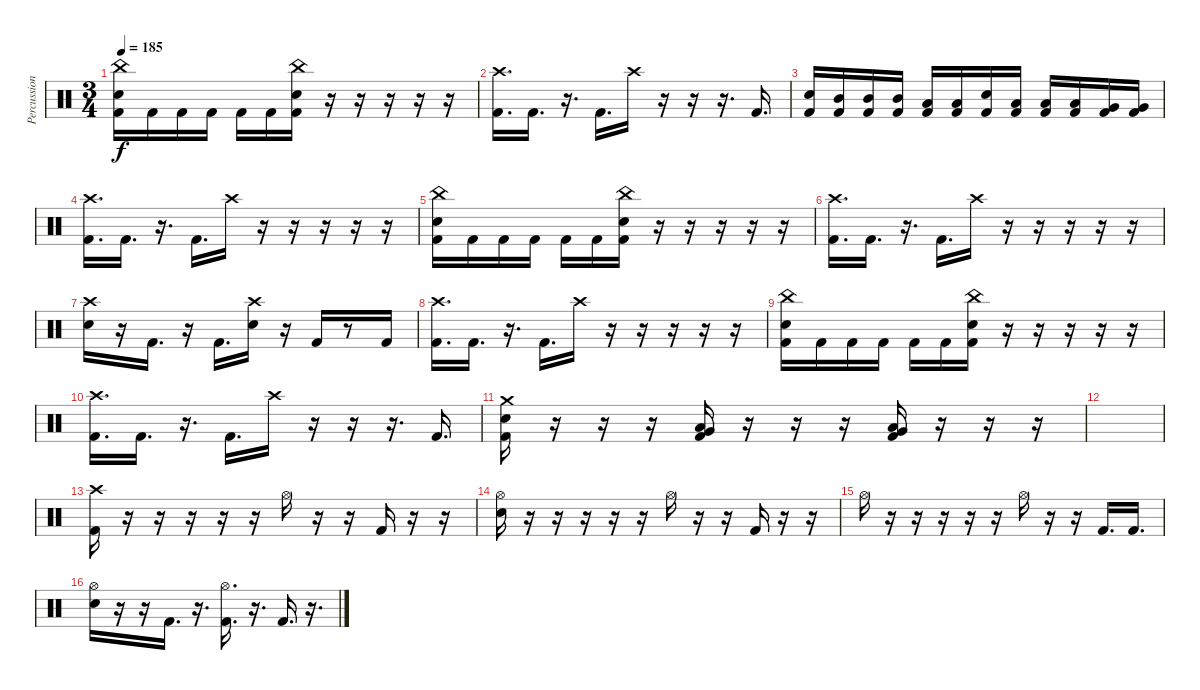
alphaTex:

\track ("Percussion" "Percussion") {instrument percussion}
\staff {score}
\articulation defaults
\ts (3 4)
\tempo 185
\clef neutral
\ks c
("China (hit)" "Electric Snare (hit)" "Kick (hit) 2").16{dy f} "Kick (hit) 2".16 "Kick (hit) 2".16 "Kick (hit) 2".16 "Kick (hit) 2".16 "Kick (hit) 2".16 ("China (hit)" "Electric Snare (hit)" "Kick (hit) 2").16 r.16 r.16 r.16 r.16 r.16 |
("Crash high (hit)" "Kick (hit) 2").16{d} "Kick (hit) 2".16{d} r.16{d} "Kick (hit) 2".16{d} "Crash high (hit)".16 r.16 r.16 r.16{d} "Kick (hit) 2".16{d} |
("Electric Snare (hit)" "Kick (hit) 2").16 ("Mid Tom (hit)" "Kick (hit) 2").16 ("Mid Tom (hit)" "Kick (hit) 2").16 ("Mid Tom (hit)" "Kick (hit) 2").16 ("Low Tom (hit)" "Kick (hit) 2").16 ("Low Tom (hit)" "Kick (hit) 2").16 ("Electric Snare (hit)" "Kick (hit) 2").16 ("Low Tom (hit)" "Kick (hit) 2").16 ("Low Tom (hit)" "Kick (hit) 2").16 ("Low Tom (hit)" "Kick (hit) 2").16 ("Very Low Tom (hit)" "Kick (hit) 2").16 ("Very Low Tom (hit)" "Kick (hit) 2").16 |
("Crash high (hit)" "Kick (hit) 2").16{d} "Kick (hit) 2".16{d} r.16{d} "Kick (hit) 2".16{d} "Crash high (hit)".16 r.16 r.16 r.16 r.16 r.16 |
("China (hit)" "Electric Snare (hit)" "Kick (hit) 2").16 "Kick (hit) 2".16 "Kick (hit) 2".16 "Kick (hit) 2".16 "Kick (hit) 2".16 "Kick (hit) 2".16 ("China (hit)" "Electric Snare (hit)" "Kick (hit) 2").16 r.16 r.16 r.16 r.16 r.16 |
("Crash high (hit)" "Kick (hit) 2").16{d} "Kick (hit) 2".16{d} r.16{d} "Kick (hit) 2".16{d} "Crash high (hit)".16 r.16 r.16 r.16 r.16 r.16 |
("Crash high (hit)" "Electric Snare (hit)").16 r.16 "Kick (hit) 2".16{d} r.16 "Kick (hit) 2".16{d} ("Crash high (hit)" "Electric Snare (hit)").16 r.16 "Kick (hit) 2".16 r.8 "Kick (hit) 2".16 |
("Crash high (hit)" "Kick (hit) 2").16{d} "Kick (hit) 2".16{d} r.16{d} "Kick (hit) 2".16{d} "Crash high (hit)".16 r.16 r.16 r.16 r.16 r.16 |
("China (hit)" "Electric Snare (hit)" "Kick (hit) 2").16 "Kick (hit) 2".16 "Kick (hit) 2".16 "Kick (hit) 2".16 "Kick (hit) 2".16 "Kick (hit) 2".16 ("China (hit)" "Electric Snare (hit)" "Kick (hit) 2").16 r.16 r.16 r.16 r.16 r.16 |
("Crash high (hit)" "Kick (hit) 2").16{d} "Kick (hit) 2".16{d} r.16{d} "Kick (hit) 2".16{d} "Crash high (hit)".16 r.16 r.16 r.16{d} "Kick (hit) 2".16{d} |
("Crash medium (hit)" "Electric Snare (hit)" "Kick (hit) 2").16 r.16 r.16 r.16 ("Very Low Tom (hit)" "Low Floor Tom (hit)" "Kick (hit) 2").16 r.16 r.16 r.16 ("Very Low Tom (hit)" "Low Floor Tom (hit)" "Kick (hit) 2").16 r.16 r.16 r.16 |
|
("Crash high (hit)" "Kick (hit) 2").16 r.16 r.16 r.16 r.16 r.16 "Hi-Hat (open)".16 r.16 r.16 "Kick (hit) 2".16 r.16 r.16 |
("Hi-Hat (open)" "Electric Snare (hit)").16 r.16 r.16 r.16 r.16 r.16 "Hi-Hat (open)".16 r.16 r.16 "Kick (hit) 2".16 r.16 r.16 |
"Hi-Hat (open)".16 r.16 r.16 r.16 r.16 r.16 "Hi-Hat (open)".16 r.16 r.16 "Kick (hit) 2".16{d} "Kick (hit) 2".16{d} |
("Hi-Hat (open)" "Electric Snare (hit)").16 r.16 r.16 "Kick (hit) 2".16{d} r.16{d} ("Hi-Hat (open)" "Kick (hit) 2").16{d} r.16{d} "Kick (hit) 2".16{d} r.16{d}
